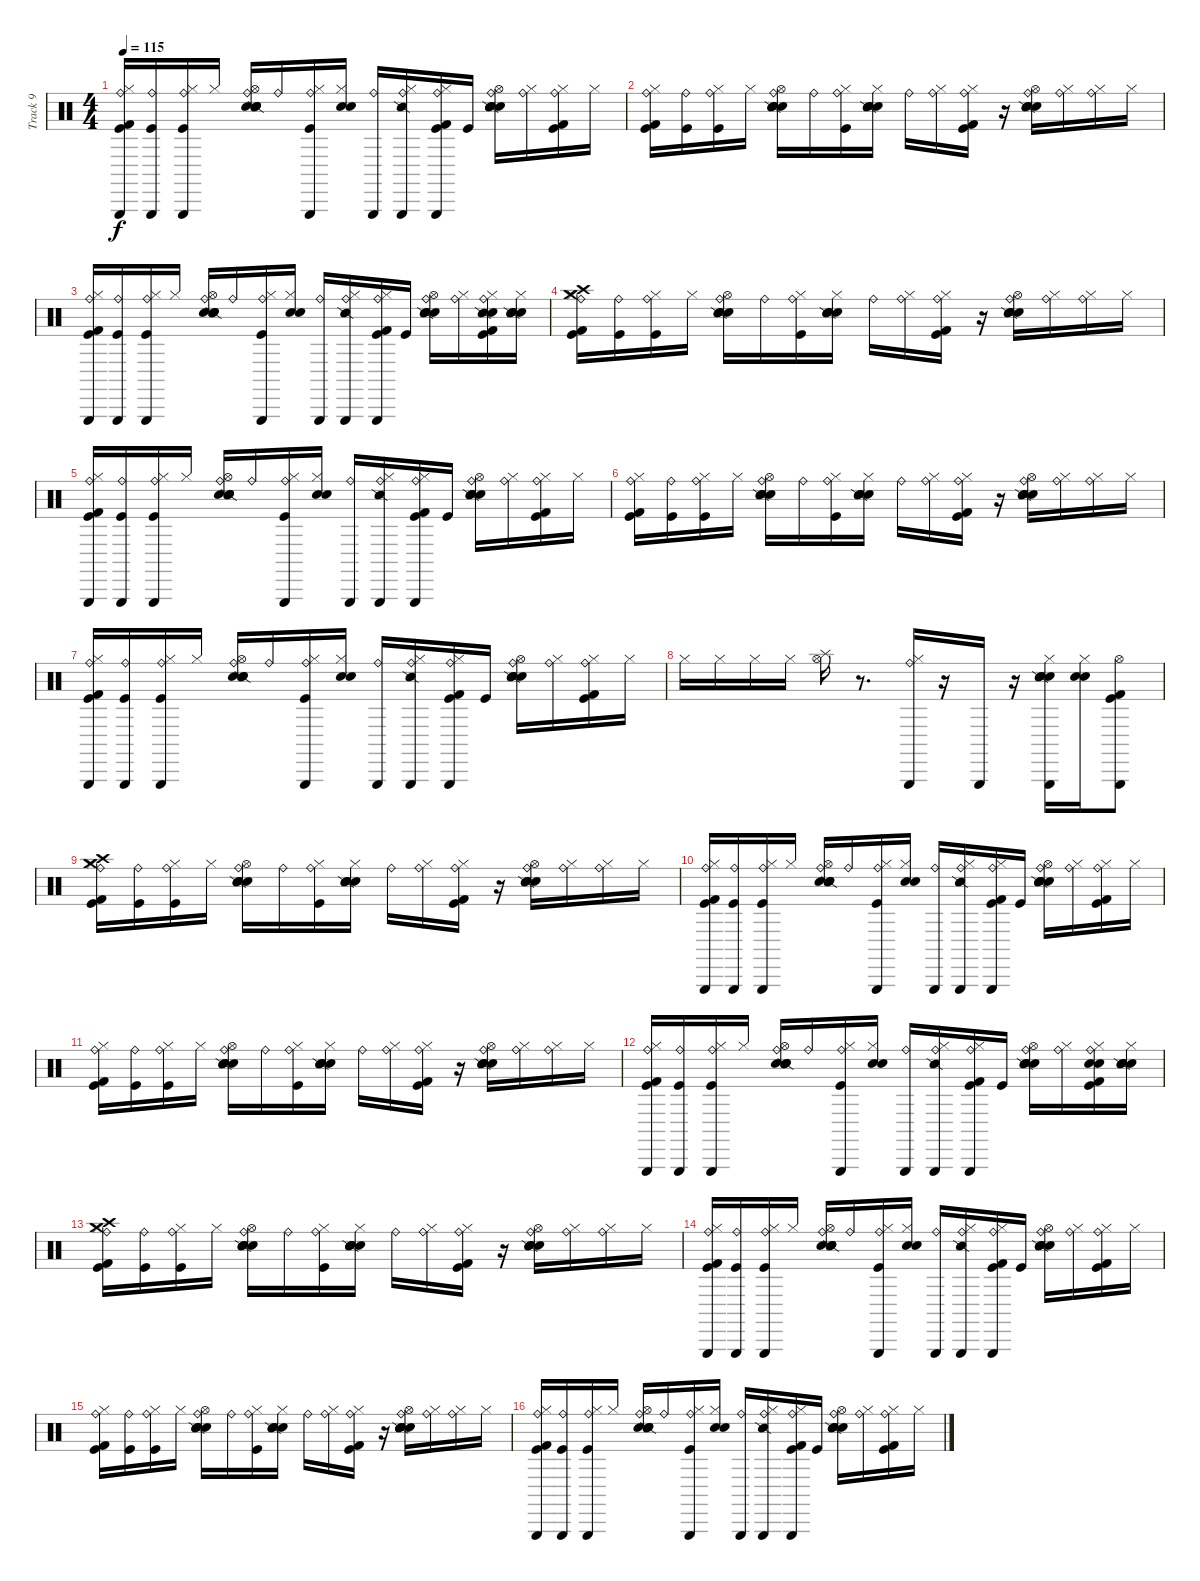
\track ("Track 9" "Track 9") {instrument percussion}
\staff {score}
\articulation defaults
\ts (4 4)
\tempo 115
\clef neutral
\ks c
("Kick (hit)" "Kick (hit) 2" "Ride (bell)" "Hi-Hat (closed)" "Triangle (hit)").16{dy f} ("Kick (hit)" "Ride (bell)" "Triangle (hit)").16 ("Kick (hit)" "Ride (bell)" "Hi-Hat (closed)" "Triangle (hit)").16 "Hi-Hat (closed)".16 ("Metronome (bell)" "Snare (side stick) 2" "Electric Snare (hit)" "Snare (hit) 2" "Ride (bell)" "Hi-Hat (open)").16 "Ride (bell)".16 ("Kick (hit)" "Ride (bell)" "Hi-Hat (closed)" "Triangle (hit)").16 ("Snare (hit) 2" "Hi-Hat (closed)" "Electric Snare (hit)").16 ("Ride (bell)" "Triangle (hit)").16 ("Ride (bell)" "Hi-Hat (closed)" "Snare (side stick) 2" "Triangle (hit)").16 ("Kick (hit)" "Kick (hit) 2" "Ride (bell)" "Hi-Hat (closed)" "Triangle (hit)").16 "Kick (hit)".16 ("Metronome (bell)" "Snare (side stick) 2" "Snare (hit) 2" "Electric Snare (hit)" "Ride (bell)" "Hi-Hat (open)").16 ("Ride (bell)" "Hi-Hat (closed)").16 ("Ride (bell)" "Hi-Hat (closed)" "Kick (hit)" "Kick (hit) 2").16 "Hi-Hat (closed)".16 |
("Kick (hit)" "Kick (hit) 2" "Ride (bell)" "Hi-Hat (closed)").16 ("Kick (hit)" "Ride (bell)").16 ("Kick (hit)" "Ride (bell)" "Hi-Hat (closed)").16 "Hi-Hat (closed)".16 ("Metronome (bell)" "Snare (side stick) 2" "Electric Snare (hit)" "Snare (hit) 2" "Ride (bell)" "Hi-Hat (open)").16 "Ride (bell)".16 ("Kick (hit)" "Ride (bell)" "Hi-Hat (closed)").16 ("Metronome (bell)" "Snare (side stick) 2" "Snare (hit) 2" "Electric Snare (hit)" "Hi-Hat (closed)").16 "Ride (bell)".16 ("Ride (bell)" "Hi-Hat (closed)").16 ("Kick (hit)" "Kick (hit) 2" "Ride (bell)" "Hi-Hat (closed)").16 r.16 ("Metronome (bell)" "Snare (side stick) 2" "Snare (hit) 2" "Electric Snare (hit)" "Ride (bell)" "Hi-Hat (open)").16 ("Ride (bell)" "Hi-Hat (closed)").16 ("Ride (bell)" "Hi-Hat (closed)").16 "Hi-Hat (closed)".16 |
("Kick (hit)" "Kick (hit) 2" "Ride (bell)" "Hi-Hat (closed)" "Triangle (hit)").16 ("Kick (hit)" "Ride (bell)" "Triangle (hit)").16 ("Kick (hit)" "Ride (bell)" "Hi-Hat (closed)" "Triangle (hit)").16 "Hi-Hat (closed)".16 ("Metronome (bell)" "Snare (side stick) 2" "Electric Snare (hit)" "Snare (hit) 2" "Ride (bell)" "Hi-Hat (open)").16 "Ride (bell)".16 ("Kick (hit)" "Ride (bell)" "Hi-Hat (closed)" "Triangle (hit)").16 ("Snare (hit) 2" "Hi-Hat (closed)" "Electric Snare (hit)").16 ("Ride (bell)" "Triangle (hit)").16 ("Ride (bell)" "Hi-Hat (closed)" "Snare (side stick) 2" "Triangle (hit)").16 ("Kick (hit)" "Kick (hit) 2" "Ride (bell)" "Hi-Hat (closed)" "Triangle (hit)").16 "Kick (hit)".16 ("Metronome (bell)" "Snare (side stick) 2" "Snare (hit) 2" "Electric Snare (hit)" "Ride (bell)" "Hi-Hat (open)").16 ("Ride (bell)" "Hi-Hat (closed)").16 ("Ride (bell)" "Hi-Hat (closed)" "Kick (hit)" "Kick (hit) 2" "Metronome (bell)" "Snare (side stick) 2").16 ("Hi-Hat (closed)" "Metronome (bell)" "Snare (side stick) 2" "Snare (hit) 2" "Electric Snare (hit)").16 |
("Kick (hit)" "Kick (hit) 2" "Ride (bell)" "Hi-Hat (closed)" "Crash high (hit)" "Crash medium (hit)").16 ("Kick (hit)" "Ride (bell)").16 ("Kick (hit)" "Ride (bell)" "Hi-Hat (closed)").16 "Hi-Hat (closed)".16 ("Metronome (bell)" "Snare (side stick) 2" "Electric Snare (hit)" "Snare (hit) 2" "Ride (bell)" "Hi-Hat (open)").16 "Ride (bell)".16 ("Kick (hit)" "Ride (bell)" "Hi-Hat (closed)").16 ("Metronome (bell)" "Snare (side stick) 2" "Snare (hit) 2" "Electric Snare (hit)" "Hi-Hat (closed)").16 "Ride (bell)".16 ("Ride (bell)" "Hi-Hat (closed)").16 ("Kick (hit)" "Kick (hit) 2" "Ride (bell)" "Hi-Hat (closed)").16 r.16 ("Metronome (bell)" "Snare (side stick) 2" "Snare (hit) 2" "Electric Snare (hit)" "Ride (bell)" "Hi-Hat (open)").16 ("Ride (bell)" "Hi-Hat (closed)").16 ("Ride (bell)" "Hi-Hat (closed)").16 "Hi-Hat (closed)".16 |
("Kick (hit)" "Kick (hit) 2" "Ride (bell)" "Hi-Hat (closed)" "Triangle (hit)").16 ("Kick (hit)" "Ride (bell)" "Triangle (hit)").16 ("Kick (hit)" "Ride (bell)" "Hi-Hat (closed)" "Triangle (hit)").16 "Hi-Hat (closed)".16 ("Metronome (bell)" "Snare (side stick) 2" "Electric Snare (hit)" "Snare (hit) 2" "Ride (bell)" "Hi-Hat (open)").16 "Ride (bell)".16 ("Kick (hit)" "Ride (bell)" "Hi-Hat (closed)" "Triangle (hit)").16 ("Snare (hit) 2" "Hi-Hat (closed)" "Electric Snare (hit)").16 ("Ride (bell)" "Triangle (hit)").16 ("Ride (bell)" "Hi-Hat (closed)" "Snare (side stick) 2" "Triangle (hit)").16 ("Kick (hit)" "Kick (hit) 2" "Ride (bell)" "Hi-Hat (closed)" "Triangle (hit)").16 "Kick (hit)".16 ("Metronome (bell)" "Snare (side stick) 2" "Snare (hit) 2" "Electric Snare (hit)" "Ride (bell)" "Hi-Hat (open)").16 ("Ride (bell)" "Hi-Hat (closed)").16 ("Ride (bell)" "Hi-Hat (closed)" "Kick (hit)" "Kick (hit) 2").16 "Hi-Hat (closed)".16 |
("Kick (hit)" "Kick (hit) 2" "Ride (bell)" "Hi-Hat (closed)").16 ("Kick (hit)" "Ride (bell)").16 ("Kick (hit)" "Ride (bell)" "Hi-Hat (closed)").16 "Hi-Hat (closed)".16 ("Metronome (bell)" "Snare (side stick) 2" "Electric Snare (hit)" "Snare (hit) 2" "Ride (bell)" "Hi-Hat (open)").16 "Ride (bell)".16 ("Kick (hit)" "Ride (bell)" "Hi-Hat (closed)").16 ("Metronome (bell)" "Snare (side stick) 2" "Snare (hit) 2" "Electric Snare (hit)" "Hi-Hat (closed)").16 "Ride (bell)".16 ("Ride (bell)" "Hi-Hat (closed)").16 ("Kick (hit)" "Kick (hit) 2" "Ride (bell)" "Hi-Hat (closed)").16 r.16 ("Metronome (bell)" "Snare (side stick) 2" "Snare (hit) 2" "Electric Snare (hit)" "Ride (bell)" "Hi-Hat (open)").16 ("Ride (bell)" "Hi-Hat (closed)").16 ("Ride (bell)" "Hi-Hat (closed)").16 "Hi-Hat (closed)".16 |
("Kick (hit)" "Kick (hit) 2" "Ride (bell)" "Hi-Hat (closed)" "Triangle (hit)").16 ("Kick (hit)" "Ride (bell)" "Triangle (hit)").16 ("Kick (hit)" "Ride (bell)" "Hi-Hat (closed)" "Triangle (hit)").16 "Hi-Hat (closed)".16 ("Metronome (bell)" "Snare (side stick) 2" "Electric Snare (hit)" "Snare (hit) 2" "Ride (bell)" "Hi-Hat (open)").16 "Ride (bell)".16 ("Kick (hit)" "Ride (bell)" "Hi-Hat (closed)" "Triangle (hit)").16 ("Snare (hit) 2" "Hi-Hat (closed)" "Electric Snare (hit)").16 ("Ride (bell)" "Triangle (hit)").16 ("Ride (bell)" "Hi-Hat (closed)" "Snare (side stick) 2" "Triangle (hit)").16 ("Kick (hit)" "Kick (hit) 2" "Ride (bell)" "Hi-Hat (closed)" "Triangle (hit)").16 "Kick (hit)".16 ("Metronome (bell)" "Snare (side stick) 2" "Snare (hit) 2" "Electric Snare (hit)" "Ride (bell)" "Hi-Hat (open)").16 ("Ride (bell)" "Hi-Hat (closed)").16 ("Ride (bell)" "Hi-Hat (closed)" "Kick (hit)" "Kick (hit) 2").16 "Hi-Hat (closed)".16 |
"Hi-Hat (closed)".16 "Hi-Hat (closed)".16 "Hi-Hat (closed)".16 "Hi-Hat (closed)".16 ("Hi-Hat (open)" "Splash (hit)").16 r.8{d} ("Hi-Hat (closed)" "Triangle (hit)" "Ride (bell)").16 r.16 "Triangle (hit)".16 r.16 ("Triangle (hit)" "Metronome (bell)" "Snare (side stick) 2" "Snare (hit) 2" "Electric Snare (hit)" "Hi-Hat (closed)").16 ("Snare (hit) 2" "Electric Snare (hit)" "Hi-Hat (closed)").16 ("Triangle (hit)" "Kick (hit)" "Kick (hit) 2" "Hi-Hat (open)").8 |
("Kick (hit)" "Kick (hit) 2" "Ride (bell)" "Hi-Hat (closed)" "Crash high (hit)" "Crash medium (hit)").16 ("Kick (hit)" "Ride (bell)").16 ("Kick (hit)" "Ride (bell)" "Hi-Hat (closed)").16 "Hi-Hat (closed)".16 ("Metronome (bell)" "Snare (side stick) 2" "Electric Snare (hit)" "Snare (hit) 2" "Ride (bell)" "Hi-Hat (open)").16 "Ride (bell)".16 ("Kick (hit)" "Ride (bell)" "Hi-Hat (closed)").16 ("Metronome (bell)" "Snare (side stick) 2" "Snare (hit) 2" "Electric Snare (hit)" "Hi-Hat (closed)").16 "Ride (bell)".16 ("Ride (bell)" "Hi-Hat (closed)").16 ("Kick (hit)" "Kick (hit) 2" "Ride (bell)" "Hi-Hat (closed)").16 r.16 ("Metronome (bell)" "Snare (side stick) 2" "Snare (hit) 2" "Electric Snare (hit)" "Ride (bell)" "Hi-Hat (open)").16 ("Ride (bell)" "Hi-Hat (closed)").16 ("Ride (bell)" "Hi-Hat (closed)").16 "Hi-Hat (closed)".16 |
("Kick (hit)" "Kick (hit) 2" "Ride (bell)" "Hi-Hat (closed)" "Triangle (hit)").16 ("Kick (hit)" "Ride (bell)" "Triangle (hit)").16 ("Kick (hit)" "Ride (bell)" "Hi-Hat (closed)" "Triangle (hit)").16 "Hi-Hat (closed)".16 ("Metronome (bell)" "Snare (side stick) 2" "Electric Snare (hit)" "Snare (hit) 2" "Ride (bell)" "Hi-Hat (open)").16 "Ride (bell)".16 ("Kick (hit)" "Ride (bell)" "Hi-Hat (closed)" "Triangle (hit)").16 ("Snare (hit) 2" "Hi-Hat (closed)" "Electric Snare (hit)").16 ("Ride (bell)" "Triangle (hit)").16 ("Ride (bell)" "Hi-Hat (closed)" "Snare (side stick) 2" "Triangle (hit)").16 ("Kick (hit)" "Kick (hit) 2" "Ride (bell)" "Hi-Hat (closed)" "Triangle (hit)").16 "Kick (hit)".16 ("Metronome (bell)" "Snare (side stick) 2" "Snare (hit) 2" "Electric Snare (hit)" "Ride (bell)" "Hi-Hat (open)").16 ("Ride (bell)" "Hi-Hat (closed)").16 ("Ride (bell)" "Hi-Hat (closed)" "Kick (hit)" "Kick (hit) 2").16 "Hi-Hat (closed)".16 |
("Kick (hit)" "Kick (hit) 2" "Ride (bell)" "Hi-Hat (closed)").16 ("Kick (hit)" "Ride (bell)").16 ("Kick (hit)" "Ride (bell)" "Hi-Hat (closed)").16 "Hi-Hat (closed)".16 ("Metronome (bell)" "Snare (side stick) 2" "Electric Snare (hit)" "Snare (hit) 2" "Ride (bell)" "Hi-Hat (open)").16 "Ride (bell)".16 ("Kick (hit)" "Ride (bell)" "Hi-Hat (closed)").16 ("Metronome (bell)" "Snare (side stick) 2" "Snare (hit) 2" "Electric Snare (hit)" "Hi-Hat (closed)").16 "Ride (bell)".16 ("Ride (bell)" "Hi-Hat (closed)").16 ("Kick (hit)" "Kick (hit) 2" "Ride (bell)" "Hi-Hat (closed)").16 r.16 ("Metronome (bell)" "Snare (side stick) 2" "Snare (hit) 2" "Electric Snare (hit)" "Ride (bell)" "Hi-Hat (open)").16 ("Ride (bell)" "Hi-Hat (closed)").16 ("Ride (bell)" "Hi-Hat (closed)").16 "Hi-Hat (closed)".16 |
("Kick (hit)" "Kick (hit) 2" "Ride (bell)" "Hi-Hat (closed)" "Triangle (hit)").16 ("Kick (hit)" "Ride (bell)" "Triangle (hit)").16 ("Kick (hit)" "Ride (bell)" "Hi-Hat (closed)" "Triangle (hit)").16 "Hi-Hat (closed)".16 ("Metronome (bell)" "Snare (side stick) 2" "Electric Snare (hit)" "Snare (hit) 2" "Ride (bell)" "Hi-Hat (open)").16 "Ride (bell)".16 ("Kick (hit)" "Ride (bell)" "Hi-Hat (closed)" "Triangle (hit)").16 ("Snare (hit) 2" "Hi-Hat (closed)" "Electric Snare (hit)").16 ("Ride (bell)" "Triangle (hit)").16 ("Ride (bell)" "Hi-Hat (closed)" "Snare (side stick) 2" "Triangle (hit)").16 ("Kick (hit)" "Kick (hit) 2" "Ride (bell)" "Hi-Hat (closed)" "Triangle (hit)").16 "Kick (hit)".16 ("Metronome (bell)" "Snare (side stick) 2" "Snare (hit) 2" "Electric Snare (hit)" "Ride (bell)" "Hi-Hat (open)").16 ("Ride (bell)" "Hi-Hat (closed)").16 ("Ride (bell)" "Hi-Hat (closed)" "Kick (hit)" "Kick (hit) 2" "Snare (hit) 2" "Electric Snare (hit)").16 ("Hi-Hat (closed)" "Electric Snare (hit)" "Snare (hit) 2" "Snare (side stick) 2" "Metronome (bell)").16 |
("Kick (hit)" "Kick (hit) 2" "Ride (bell)" "Hi-Hat (closed)" "Crash high (hit)" "Crash medium (hit)").16 ("Kick (hit)" "Ride (bell)").16 ("Kick (hit)" "Ride (bell)" "Hi-Hat (closed)").16 "Hi-Hat (closed)".16 ("Metronome (bell)" "Snare (side stick) 2" "Electric Snare (hit)" "Snare (hit) 2" "Ride (bell)" "Hi-Hat (open)").16 "Ride (bell)".16 ("Kick (hit)" "Ride (bell)" "Hi-Hat (closed)").16 ("Metronome (bell)" "Snare (side stick) 2" "Snare (hit) 2" "Electric Snare (hit)" "Hi-Hat (closed)").16 "Ride (bell)".16 ("Ride (bell)" "Hi-Hat (closed)").16 ("Kick (hit)" "Kick (hit) 2" "Ride (bell)" "Hi-Hat (closed)").16 r.16 ("Metronome (bell)" "Snare (side stick) 2" "Snare (hit) 2" "Electric Snare (hit)" "Ride (bell)" "Hi-Hat (open)").16 ("Ride (bell)" "Hi-Hat (closed)").16 ("Ride (bell)" "Hi-Hat (closed)").16 "Hi-Hat (closed)".16 |
("Kick (hit)" "Kick (hit) 2" "Ride (bell)" "Hi-Hat (closed)" "Triangle (hit)").16 ("Kick (hit)" "Ride (bell)" "Triangle (hit)").16 ("Kick (hit)" "Ride (bell)" "Hi-Hat (closed)" "Triangle (hit)").16 "Hi-Hat (closed)".16 ("Metronome (bell)" "Snare (side stick) 2" "Electric Snare (hit)" "Snare (hit) 2" "Ride (bell)" "Hi-Hat (open)").16 "Ride (bell)".16 ("Kick (hit)" "Ride (bell)" "Hi-Hat (closed)" "Triangle (hit)").16 ("Snare (hit) 2" "Hi-Hat (closed)" "Electric Snare (hit)").16 ("Ride (bell)" "Triangle (hit)").16 ("Ride (bell)" "Hi-Hat (closed)" "Snare (side stick) 2" "Triangle (hit)").16 ("Kick (hit)" "Kick (hit) 2" "Ride (bell)" "Hi-Hat (closed)" "Triangle (hit)").16 "Kick (hit)".16 ("Metronome (bell)" "Snare (side stick) 2" "Snare (hit) 2" "Electric Snare (hit)" "Ride (bell)" "Hi-Hat (open)").16 ("Ride (bell)" "Hi-Hat (closed)").16 ("Ride (bell)" "Hi-Hat (closed)" "Kick (hit)" "Kick (hit) 2").16 "Hi-Hat (closed)".16 |
("Kick (hit)" "Kick (hit) 2" "Ride (bell)" "Hi-Hat (closed)").16 ("Kick (hit)" "Ride (bell)").16 ("Kick (hit)" "Ride (bell)" "Hi-Hat (closed)").16 "Hi-Hat (closed)".16 ("Metronome (bell)" "Snare (side stick) 2" "Electric Snare (hit)" "Snare (hit) 2" "Ride (bell)" "Hi-Hat (open)").16 "Ride (bell)".16 ("Kick (hit)" "Ride (bell)" "Hi-Hat (closed)").16 ("Metronome (bell)" "Snare (side stick) 2" "Snare (hit) 2" "Electric Snare (hit)" "Hi-Hat (closed)").16 "Ride (bell)".16 ("Ride (bell)" "Hi-Hat (closed)").16 ("Kick (hit)" "Kick (hit) 2" "Ride (bell)" "Hi-Hat (closed)").16 r.16 ("Metronome (bell)" "Snare (side stick) 2" "Snare (hit) 2" "Electric Snare (hit)" "Ride (bell)" "Hi-Hat (open)").16 ("Ride (bell)" "Hi-Hat (closed)").16 ("Ride (bell)" "Hi-Hat (closed)").16 "Hi-Hat (closed)".16 |
("Kick (hit)" "Kick (hit) 2" "Ride (bell)" "Hi-Hat (closed)" "Triangle (hit)").16 ("Kick (hit)" "Ride (bell)" "Triangle (hit)").16 ("Kick (hit)" "Ride (bell)" "Hi-Hat (closed)" "Triangle (hit)").16 "Hi-Hat (closed)".16 ("Metronome (bell)" "Snare (side stick) 2" "Electric Snare (hit)" "Snare (hit) 2" "Ride (bell)" "Hi-Hat (open)").16 "Ride (bell)".16 ("Kick (hit)" "Ride (bell)" "Hi-Hat (closed)" "Triangle (hit)").16 ("Snare (hit) 2" "Hi-Hat (closed)" "Electric Snare (hit)").16 ("Ride (bell)" "Triangle (hit)").16 ("Ride (bell)" "Hi-Hat (closed)" "Snare (side stick) 2" "Triangle (hit)").16 ("Kick (hit)" "Kick (hit) 2" "Ride (bell)" "Hi-Hat (closed)" "Triangle (hit)").16 "Kick (hit)".16 ("Metronome (bell)" "Snare (side stick) 2" "Snare (hit) 2" "Electric Snare (hit)" "Ride (bell)" "Hi-Hat (open)").16 ("Ride (bell)" "Hi-Hat (closed)").16 ("Ride (bell)" "Hi-Hat (closed)" "Kick (hit)" "Kick (hit) 2").16 "Hi-Hat (closed)".16
